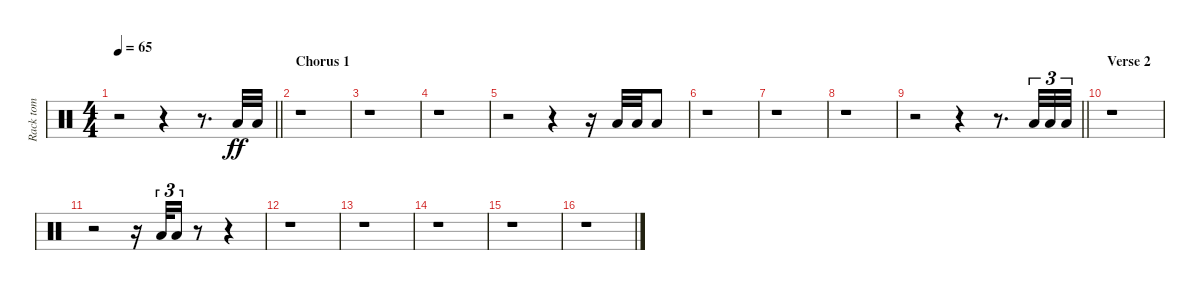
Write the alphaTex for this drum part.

\track ("Rack tom" "Rack tom") {instrument percussion}
\staff {score}
\articulation defaults
\ts (4 4)
\tempo 65
\clef neutral
\barLineRight lightlight
\ks c
r.2{dy ff} r.4 r.8{d} "Low Tom (hit)".32 "Low Tom (hit)".32 |
\section ("" "Chorus 1")
r.1 |
r.1 |
r.1 |
r.2 r.4 r.16 "Low Tom (hit)".32 "Low Tom (hit)".32 "Low Tom (hit)".8 |
r.1 |
r.1 |
r.1 |
\barLineRight lightlight
r.2 r.4 r.8{d} "Low Tom (hit)".32{tu (3 2)} "Low Tom (hit)".32{tu (3 2)} "Low Tom (hit)".32{tu (3 2)} |
\section ("" "Verse 2")
r.1 |
r.2 r.16 "Low Tom (hit)".32{tu (3 2)} "Low Tom (hit)".16{tu (3 2)} r.8 r.4 |
r.1 |
r.1 |
r.1 |
r.1 |
r.1
